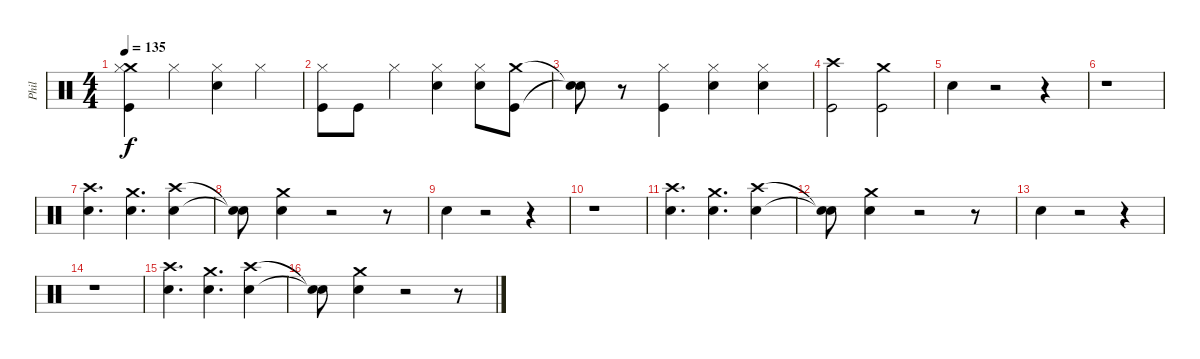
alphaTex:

\track ("Phil" "Phil") {instrument percussion}
\staff {score}
\articulation defaults
\ts (4 4)
\tempo 135
\clef neutral
\ks c
("Crash medium (hit)" "Kick (hit)" "Hi-Hat (closed)").4{dy f} "Hi-Hat (closed)".4 ("Snare (hit) 2" "Hi-Hat (closed)").4 "Hi-Hat (closed)".4 |
("Kick (hit)" "Hi-Hat (closed)").8 "Kick (hit)".8 "Hi-Hat (closed)".4 ("Snare (hit) 2" "Hi-Hat (closed)").4 ("Snare (hit) 2" "Hi-Hat (closed)").8 ("Kick (hit)" "Crash medium (hit)").8 |
("Snare (hit)"{t} "Snare (hit)"{t}).8 r.8 ("Kick (hit)" "Hi-Hat (closed)").4 ("Snare (hit) 2" "Hi-Hat (closed)").4 ("Snare (hit) 2" "Hi-Hat (closed)").4 |
("Crash high (hit)" "Kick (hit)").2 ("Crash medium (hit)" "Kick (hit)").2 |
"Snare (hit) 2".4 r.2 r.4 |
r.1 |
("Snare (hit) 2" "Crash high (hit)").4{d} ("Snare (hit) 2" "Crash medium (hit)").4{d} ("Crash high (hit)" "Snare (hit) 2").4 |
("Snare (hit)"{t} "Snare (hit)"{t}).8 ("Snare (hit) 2" "Crash medium (hit)").4 r.2 r.8 |
"Snare (hit) 2".4 r.2 r.4 |
r.1 |
("Snare (hit) 2" "Crash high (hit)").4{d} ("Snare (hit) 2" "Crash medium (hit)").4{d} ("Snare (hit) 2" "Crash high (hit)").4 |
("Snare (hit)"{t} "Snare (hit)"{t}).8 ("Snare (hit) 2" "Crash medium (hit)").4 r.2 r.8 |
"Snare (hit) 2".4 r.2 r.4 |
r.1 |
("Snare (hit) 2" "Crash high (hit)").4{d} ("Snare (hit) 2" "Crash medium (hit)").4{d} ("Snare (hit) 2" "Crash high (hit)").4 |
("Snare (hit)"{t} "Snare (hit)"{t}).8 ("Snare (hit) 2" "Crash medium (hit)").4 r.2 r.8
